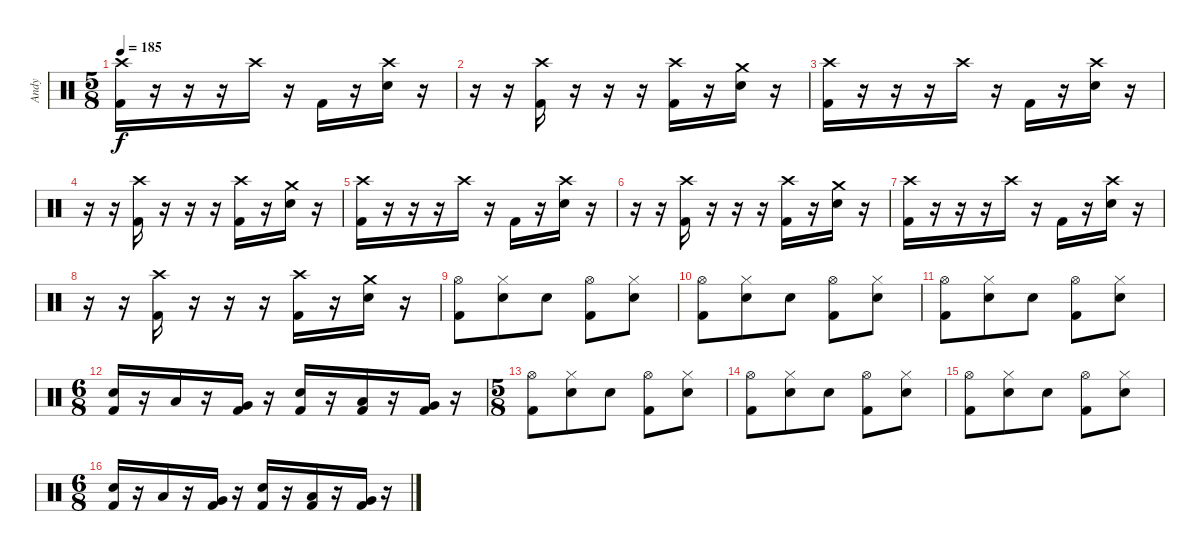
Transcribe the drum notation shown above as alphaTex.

\track ("Andy" "Andy") {instrument percussion}
\staff {score}
\articulation defaults
\ts (5 8)
\tempo 185
\clef neutral
\ks c
("Crash high (hit)" "Kick (hit) 2").16{dy f} r.16 r.16 r.16 "Crash high (hit)".16 r.16 "Kick (hit) 2".16 r.16 ("Crash high (hit)" "Electric Snare (hit)").16 r.16 |
r.16 r.16 ("Crash high (hit)" "Kick (hit) 2").16 r.16 r.16 r.16 ("Crash high (hit)" "Kick (hit) 2").16 r.16 ("Crash medium (hit)" "Electric Snare (hit)").16 r.16 |
("Crash high (hit)" "Kick (hit) 2").16 r.16 r.16 r.16 "Crash high (hit)".16 r.16 "Kick (hit) 2".16 r.16 ("Crash high (hit)" "Electric Snare (hit)").16 r.16 |
r.16 r.16 ("Crash high (hit)" "Kick (hit) 2").16 r.16 r.16 r.16 ("Crash high (hit)" "Kick (hit) 2").16 r.16 ("Crash medium (hit)" "Electric Snare (hit)").16 r.16 |
("Crash high (hit)" "Kick (hit) 2").16 r.16 r.16 r.16 "Crash high (hit)".16 r.16 "Kick (hit) 2".16 r.16 ("Crash high (hit)" "Electric Snare (hit)").16 r.16 |
r.16 r.16 ("Crash high (hit)" "Kick (hit) 2").16 r.16 r.16 r.16 ("Crash high (hit)" "Kick (hit) 2").16 r.16 ("Crash medium (hit)" "Electric Snare (hit)").16 r.16 |
("Crash high (hit)" "Kick (hit) 2").16 r.16 r.16 r.16 "Crash high (hit)".16 r.16 "Kick (hit) 2".16 r.16 ("Crash high (hit)" "Electric Snare (hit)").16 r.16 |
r.16 r.16 ("Crash high (hit)" "Kick (hit) 2").16 r.16 r.16 r.16 ("Crash high (hit)" "Kick (hit) 2").16 r.16 ("Crash medium (hit)" "Electric Snare (hit)").16 r.16 |
("Hi-Hat (open)" "Kick (hit) 2").8 ("Hi-Hat (closed)" "Electric Snare (hit)").8 "Electric Snare (hit)".8 ("Hi-Hat (open)" "Kick (hit) 2").8 ("Hi-Hat (closed)" "Electric Snare (hit)").8 |
("Hi-Hat (open)" "Kick (hit) 2").8 ("Hi-Hat (closed)" "Electric Snare (hit)").8 "Electric Snare (hit)".8 ("Hi-Hat (open)" "Kick (hit) 2").8 ("Hi-Hat (closed)" "Electric Snare (hit)").8 |
("Hi-Hat (open)" "Kick (hit) 2").8 ("Hi-Hat (closed)" "Electric Snare (hit)").8 "Electric Snare (hit)".8 ("Hi-Hat (open)" "Kick (hit) 2").8 ("Hi-Hat (closed)" "Electric Snare (hit)").8 |
\ts (6 8)
("Electric Snare (hit)" "Kick (hit) 2").16 r.16 "Low Tom (hit)".16 r.16 ("Very Low Tom (hit)" "Kick (hit) 2").16 r.16 ("Electric Snare (hit)" "Kick (hit) 2").16 r.16 ("Low Tom (hit)" "Kick (hit) 2").16 r.16 ("Very Low Tom (hit)" "Kick (hit) 2").16 r.16 |
\ts (5 8)
("Hi-Hat (open)" "Kick (hit) 2").8 ("Hi-Hat (closed)" "Electric Snare (hit)").8 "Electric Snare (hit)".8 ("Hi-Hat (open)" "Kick (hit) 2").8 ("Hi-Hat (closed)" "Electric Snare (hit)").8 |
("Hi-Hat (open)" "Kick (hit) 2").8 ("Hi-Hat (closed)" "Electric Snare (hit)").8 "Electric Snare (hit)".8 ("Hi-Hat (open)" "Kick (hit) 2").8 ("Hi-Hat (closed)" "Electric Snare (hit)").8 |
("Hi-Hat (open)" "Kick (hit) 2").8 ("Hi-Hat (closed)" "Electric Snare (hit)").8 "Electric Snare (hit)".8 ("Hi-Hat (open)" "Kick (hit) 2").8 ("Hi-Hat (closed)" "Electric Snare (hit)").8 |
\ts (6 8)
("Electric Snare (hit)" "Kick (hit) 2").16 r.16 "Low Tom (hit)".16 r.16 ("Very Low Tom (hit)" "Kick (hit) 2").16 r.16 ("Electric Snare (hit)" "Kick (hit) 2").16 r.16 ("Low Tom (hit)" "Kick (hit) 2").16 r.16 ("Very Low Tom (hit)" "Kick (hit) 2").16 r.16
